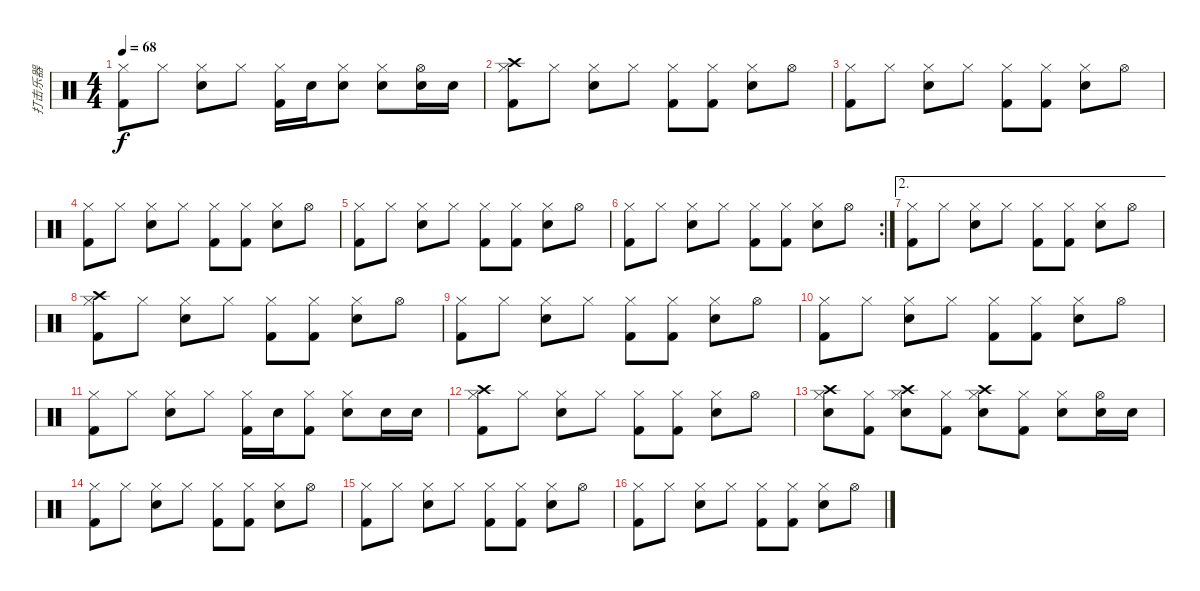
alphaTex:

\track ("打击乐器" "打击乐器") {instrument percussion}
\staff {score}
\articulation defaults
\ts (4 4)
\tempo 68
\clef neutral
\ks c
("Hi-Hat (closed)" "Kick (hit) 2").8{dy f} "Hi-Hat (closed)".8 ("Hi-Hat (closed)" "Electric Snare (hit)").8 "Hi-Hat (closed)".8 ("Hi-Hat (closed)" "Kick (hit) 2").16 "Electric Snare (hit)".16 ("Hi-Hat (closed)" "Electric Snare (hit)").8 ("Hi-Hat (closed)" "Electric Snare (hit)").8 ("Hi-Hat (open)" "Electric Snare (hit)").16 "Electric Snare (hit)".16 |
("Hi-Hat (closed)" "Kick (hit) 2" "Crash high (hit)").8 "Hi-Hat (closed)".8 ("Hi-Hat (closed)" "Electric Snare (hit)").8 "Hi-Hat (closed)".8 ("Hi-Hat (closed)" "Kick (hit) 2").8 ("Hi-Hat (closed)" "Kick (hit) 2").8 ("Hi-Hat (closed)" "Electric Snare (hit)").8 "Hi-Hat (open)".8 |
("Hi-Hat (closed)" "Kick (hit) 2").8 "Hi-Hat (closed)".8 ("Hi-Hat (closed)" "Electric Snare (hit)").8 "Hi-Hat (closed)".8 ("Hi-Hat (closed)" "Kick (hit) 2").8 ("Hi-Hat (closed)" "Kick (hit) 2").8 ("Hi-Hat (closed)" "Electric Snare (hit)").8 "Hi-Hat (open)".8 |
("Hi-Hat (closed)" "Kick (hit) 2").8 "Hi-Hat (closed)".8 ("Hi-Hat (closed)" "Electric Snare (hit)").8 "Hi-Hat (closed)".8 ("Hi-Hat (closed)" "Kick (hit) 2").8 ("Hi-Hat (closed)" "Kick (hit) 2").8 ("Hi-Hat (closed)" "Electric Snare (hit)").8 "Hi-Hat (open)".8 |
("Hi-Hat (closed)" "Kick (hit) 2").8 "Hi-Hat (closed)".8 ("Hi-Hat (closed)" "Electric Snare (hit)").8 "Hi-Hat (closed)".8 ("Hi-Hat (closed)" "Kick (hit) 2").8 ("Hi-Hat (closed)" "Kick (hit) 2").8 ("Hi-Hat (closed)" "Electric Snare (hit)").8 "Hi-Hat (open)".8 |
\rc 2
("Hi-Hat (closed)" "Kick (hit) 2").8 "Hi-Hat (closed)".8 ("Hi-Hat (closed)" "Electric Snare (hit)").8 "Hi-Hat (closed)".8 ("Hi-Hat (closed)" "Kick (hit) 2").8 ("Hi-Hat (closed)" "Kick (hit) 2").8 ("Hi-Hat (closed)" "Electric Snare (hit)").8 "Hi-Hat (open)".8 |
\ae 2
("Hi-Hat (closed)" "Kick (hit) 2").8 "Hi-Hat (closed)".8 ("Hi-Hat (closed)" "Electric Snare (hit)").8 "Hi-Hat (closed)".8 ("Hi-Hat (closed)" "Kick (hit) 2").8 ("Hi-Hat (closed)" "Kick (hit) 2").8 ("Hi-Hat (closed)" "Electric Snare (hit)").8 "Hi-Hat (open)".8 |
("Hi-Hat (closed)" "Kick (hit) 2" "Crash high (hit)").8 "Hi-Hat (closed)".8 ("Hi-Hat (closed)" "Electric Snare (hit)").8 "Hi-Hat (closed)".8 ("Hi-Hat (closed)" "Kick (hit) 2").8 ("Hi-Hat (closed)" "Kick (hit) 2").8 ("Hi-Hat (closed)" "Electric Snare (hit)").8 "Hi-Hat (open)".8 |
("Hi-Hat (closed)" "Kick (hit) 2").8 "Hi-Hat (closed)".8 ("Hi-Hat (closed)" "Electric Snare (hit)").8 "Hi-Hat (closed)".8 ("Hi-Hat (closed)" "Kick (hit) 2").8 ("Hi-Hat (closed)" "Kick (hit) 2").8 ("Hi-Hat (closed)" "Electric Snare (hit)").8 "Hi-Hat (open)".8 |
("Hi-Hat (closed)" "Kick (hit) 2").8 "Hi-Hat (closed)".8 ("Hi-Hat (closed)" "Electric Snare (hit)").8 "Hi-Hat (closed)".8 ("Hi-Hat (closed)" "Kick (hit) 2").8 ("Hi-Hat (closed)" "Kick (hit) 2").8 ("Hi-Hat (closed)" "Electric Snare (hit)").8 "Hi-Hat (open)".8 |
("Hi-Hat (closed)" "Kick (hit) 2").8 "Hi-Hat (closed)".8 ("Hi-Hat (closed)" "Electric Snare (hit)").8 "Hi-Hat (closed)".8 ("Hi-Hat (closed)" "Kick (hit) 2").16 "Electric Snare (hit)".16 ("Hi-Hat (closed)" "Kick (hit) 2").8 ("Hi-Hat (closed)" "Electric Snare (hit)").8 "Electric Snare (hit)".16 "Electric Snare (hit)".16 |
("Hi-Hat (closed)" "Kick (hit) 2" "Crash high (hit)").8 "Hi-Hat (closed)".8 ("Hi-Hat (closed)" "Electric Snare (hit)").8 "Hi-Hat (closed)".8 ("Hi-Hat (closed)" "Kick (hit) 2").8 ("Hi-Hat (closed)" "Kick (hit) 2").8 ("Hi-Hat (closed)" "Electric Snare (hit)").8 "Hi-Hat (open)".8 |
("Hi-Hat (closed)" "Electric Snare (hit)" "Crash high (hit)").8 ("Hi-Hat (closed)" "Kick (hit) 2").8 ("Hi-Hat (closed)" "Electric Snare (hit)" "Crash high (hit)").8 ("Hi-Hat (closed)" "Kick (hit) 2").8 ("Hi-Hat (closed)" "Electric Snare (hit)" "Crash high (hit)").8 ("Hi-Hat (closed)" "Kick (hit) 2").8 ("Hi-Hat (closed)" "Electric Snare (hit)").8 ("Hi-Hat (open)" "Electric Snare (hit)").16 "Electric Snare (hit)".16 |
("Hi-Hat (closed)" "Kick (hit) 2").8 "Hi-Hat (closed)".8 ("Hi-Hat (closed)" "Electric Snare (hit)").8 "Hi-Hat (closed)".8 ("Hi-Hat (closed)" "Kick (hit) 2").8 ("Hi-Hat (closed)" "Kick (hit) 2").8 ("Hi-Hat (closed)" "Electric Snare (hit)").8 "Hi-Hat (open)".8 |
("Hi-Hat (closed)" "Kick (hit) 2").8 "Hi-Hat (closed)".8 ("Hi-Hat (closed)" "Electric Snare (hit)").8 "Hi-Hat (closed)".8 ("Hi-Hat (closed)" "Kick (hit) 2").8 ("Hi-Hat (closed)" "Kick (hit) 2").8 ("Hi-Hat (closed)" "Electric Snare (hit)").8 "Hi-Hat (open)".8 |
("Hi-Hat (closed)" "Kick (hit) 2").8 "Hi-Hat (closed)".8 ("Hi-Hat (closed)" "Electric Snare (hit)").8 "Hi-Hat (closed)".8 ("Hi-Hat (closed)" "Kick (hit) 2").8 ("Hi-Hat (closed)" "Kick (hit) 2").8 ("Hi-Hat (closed)" "Electric Snare (hit)").8 "Hi-Hat (open)".8
